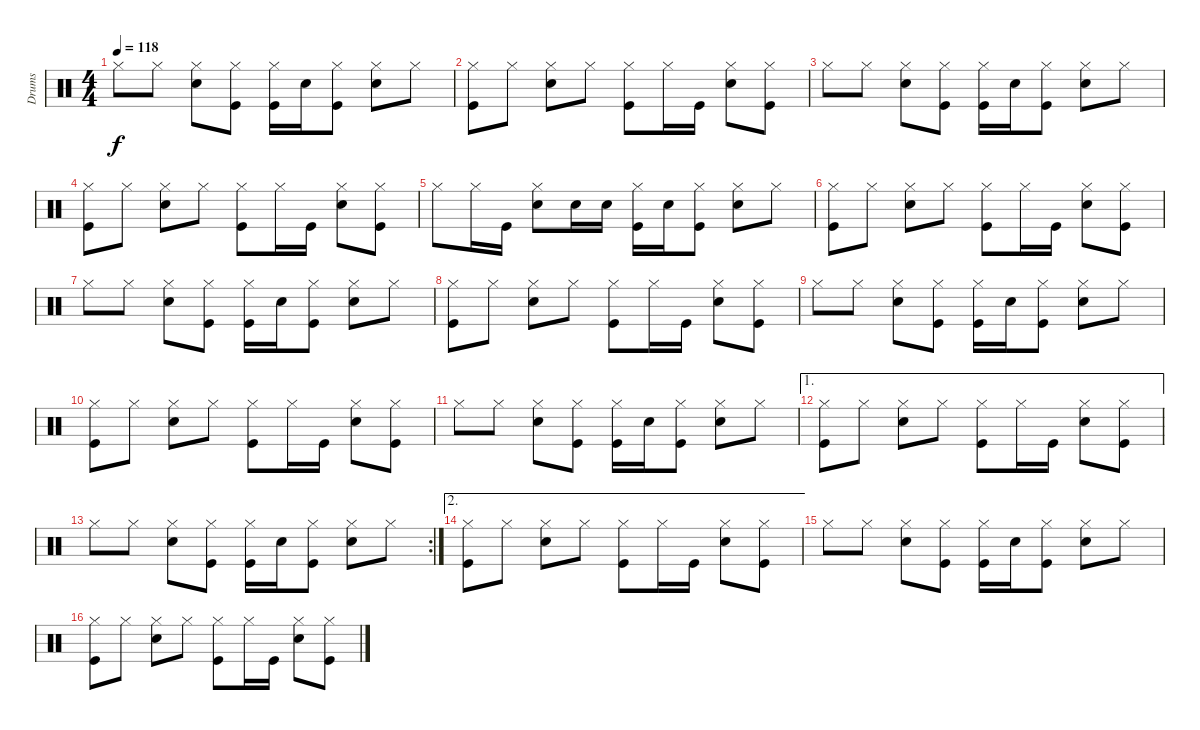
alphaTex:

\track ("Drums" "Drums") {instrument percussion}
\staff {score}
\articulation defaults
\ts (4 4)
\tempo 118
\clef neutral
\ks c "Hi-Hat (closed)".8{dy f} "Hi-Hat (closed)".8
("Hi-Hat (closed)" "Snare (hit) 2").8 ("Hi-Hat (closed)" "Kick (hit)").8 ("Hi-Hat (closed)" "Kick (hit)").16 "Snare (hit) 2".16 ("Hi-Hat (closed)" "Kick (hit)").8 ("Hi-Hat (closed)" "Snare (hit) 2").8 "Hi-Hat (closed)".8 |
("Hi-Hat (closed)" "Kick (hit)").8 "Hi-Hat (closed)".8 ("Hi-Hat (closed)" "Snare (hit) 2").8 "Hi-Hat (closed)".8 ("Hi-Hat (closed)" "Kick (hit)").8 "Hi-Hat (closed)".16 "Kick (hit)".16 ("Hi-Hat (closed)" "Snare (hit) 2").8 ("Hi-Hat (closed)" "Kick (hit)").8 |
"Hi-Hat (closed)".8 "Hi-Hat (closed)".8 ("Hi-Hat (closed)" "Snare (hit) 2").8 ("Hi-Hat (closed)" "Kick (hit)").8 ("Hi-Hat (closed)" "Kick (hit)").16 "Snare (hit) 2".16 ("Hi-Hat (closed)" "Kick (hit)").8 ("Hi-Hat (closed)" "Snare (hit) 2").8 "Hi-Hat (closed)".8 |
("Hi-Hat (closed)" "Kick (hit)").8 "Hi-Hat (closed)".8 ("Hi-Hat (closed)" "Snare (hit) 2").8 "Hi-Hat (closed)".8 ("Hi-Hat (closed)" "Kick (hit)").8 "Hi-Hat (closed)".16 "Kick (hit)".16 ("Hi-Hat (closed)" "Snare (hit) 2").8 ("Hi-Hat (closed)" "Kick (hit)").8 |
"Hi-Hat (closed)".8 "Hi-Hat (closed)".16 "Kick (hit)".16 ("Hi-Hat (closed)" "Snare (hit) 2").8 "Snare (hit) 2".16 "Snare (hit) 2".16 ("Hi-Hat (closed)" "Kick (hit)").16 "Snare (hit) 2".16 ("Hi-Hat (closed)" "Kick (hit)").8 ("Hi-Hat (closed)" "Snare (hit) 2").8 "Hi-Hat (closed)".8 |
("Hi-Hat (closed)" "Kick (hit)").8 "Hi-Hat (closed)".8 ("Hi-Hat (closed)" "Snare (hit) 2").8 "Hi-Hat (closed)".8 ("Hi-Hat (closed)" "Kick (hit)").8 "Hi-Hat (closed)".16 "Kick (hit)".16 ("Hi-Hat (closed)" "Snare (hit) 2").8 ("Hi-Hat (closed)" "Kick (hit)").8 |
"Hi-Hat (closed)".8 "Hi-Hat (closed)".8 ("Hi-Hat (closed)" "Snare (hit) 2").8 ("Hi-Hat (closed)" "Kick (hit)").8 ("Hi-Hat (closed)" "Kick (hit)").16 "Snare (hit) 2".16 ("Hi-Hat (closed)" "Kick (hit)").8 ("Hi-Hat (closed)" "Snare (hit) 2").8 "Hi-Hat (closed)".8 |
("Hi-Hat (closed)" "Kick (hit)").8 "Hi-Hat (closed)".8 ("Hi-Hat (closed)" "Snare (hit) 2").8 "Hi-Hat (closed)".8 ("Hi-Hat (closed)" "Kick (hit)").8 "Hi-Hat (closed)".16 "Kick (hit)".16 ("Hi-Hat (closed)" "Snare (hit) 2").8 ("Hi-Hat (closed)" "Kick (hit)").8 |
"Hi-Hat (closed)".8 "Hi-Hat (closed)".8 ("Hi-Hat (closed)" "Snare (hit) 2").8 ("Hi-Hat (closed)" "Kick (hit)").8 ("Hi-Hat (closed)" "Kick (hit)").16 "Snare (hit) 2".16 ("Hi-Hat (closed)" "Kick (hit)").8 ("Hi-Hat (closed)" "Snare (hit) 2").8 "Hi-Hat (closed)".8 |
("Hi-Hat (closed)" "Kick (hit)").8 "Hi-Hat (closed)".8 ("Hi-Hat (closed)" "Snare (hit) 2").8 "Hi-Hat (closed)".8 ("Hi-Hat (closed)" "Kick (hit)").8 "Hi-Hat (closed)".16 "Kick (hit)".16 ("Hi-Hat (closed)" "Snare (hit) 2").8 ("Hi-Hat (closed)" "Kick (hit)").8 |
"Hi-Hat (closed)".8 "Hi-Hat (closed)".8 ("Hi-Hat (closed)" "Snare (hit) 2").8 ("Hi-Hat (closed)" "Kick (hit)").8 ("Hi-Hat (closed)" "Kick (hit)").16 "Snare (hit) 2".16 ("Hi-Hat (closed)" "Kick (hit)").8 ("Hi-Hat (closed)" "Snare (hit) 2").8 "Hi-Hat (closed)".8 |
\ae 1
("Hi-Hat (closed)" "Kick (hit)").8 "Hi-Hat (closed)".8 ("Hi-Hat (closed)" "Snare (hit) 2").8 "Hi-Hat (closed)".8 ("Hi-Hat (closed)" "Kick (hit)").8 "Hi-Hat (closed)".16 "Kick (hit)".16 ("Hi-Hat (closed)" "Snare (hit) 2").8 ("Hi-Hat (closed)" "Kick (hit)").8 |
\rc 2 "Hi-Hat (closed)".8 "Hi-Hat (closed)".8
("Hi-Hat (closed)" "Snare (hit) 2").8 ("Hi-Hat (closed)" "Kick (hit)").8 ("Hi-Hat (closed)" "Kick (hit)").16 "Snare (hit) 2".16 ("Hi-Hat (closed)" "Kick (hit)").8 ("Hi-Hat (closed)" "Snare (hit) 2").8 "Hi-Hat (closed)".8 |
\ae 2
("Hi-Hat (closed)" "Kick (hit)").8 "Hi-Hat (closed)".8 ("Hi-Hat (closed)" "Snare (hit) 2").8 "Hi-Hat (closed)".8 ("Hi-Hat (closed)" "Kick (hit)").8 "Hi-Hat (closed)".16 "Kick (hit)".16 ("Hi-Hat (closed)" "Snare (hit) 2").8 ("Hi-Hat (closed)" "Kick (hit)").8 |
"Hi-Hat (closed)".8 "Hi-Hat (closed)".8 ("Hi-Hat (closed)" "Snare (hit) 2").8 ("Hi-Hat (closed)" "Kick (hit)").8 ("Hi-Hat (closed)" "Kick (hit)").16 "Snare (hit) 2".16 ("Hi-Hat (closed)" "Kick (hit)").8 ("Hi-Hat (closed)" "Snare (hit) 2").8 "Hi-Hat (closed)".8 |
("Hi-Hat (closed)" "Kick (hit)").8 "Hi-Hat (closed)".8 ("Hi-Hat (closed)" "Snare (hit) 2").8 "Hi-Hat (closed)".8 ("Hi-Hat (closed)" "Kick (hit)").8 "Hi-Hat (closed)".16 "Kick (hit)".16 ("Hi-Hat (closed)" "Snare (hit) 2").8 ("Hi-Hat (closed)" "Kick (hit)").8
